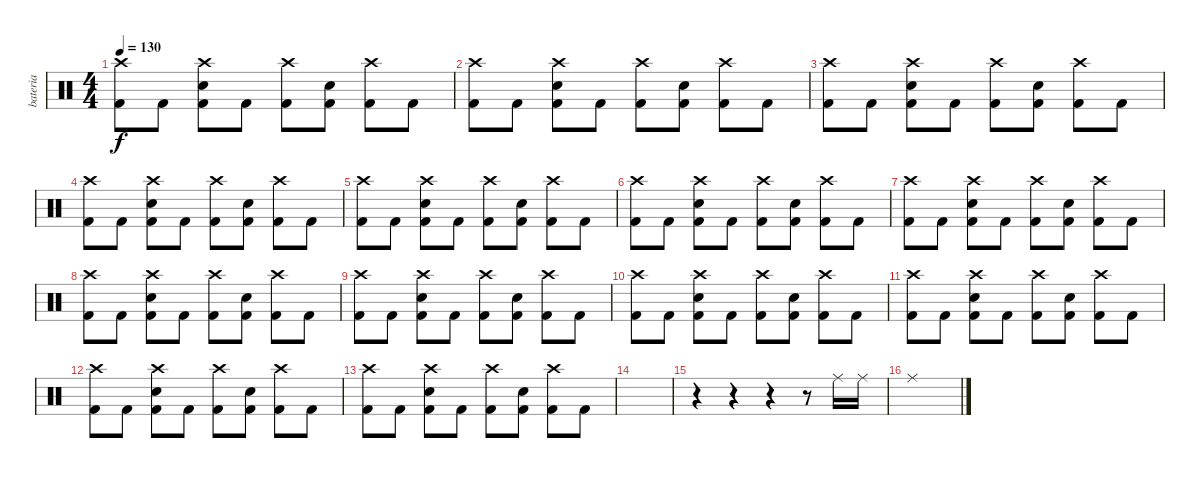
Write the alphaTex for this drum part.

\track ("bateria" "bateria") {instrument percussion}
\staff {score}
\articulation defaults
\ts (4 4)
\tempo 130
\clef neutral
\ks c
("Crash high (hit)" "Kick (hit) 2").8{dy f} "Kick (hit) 2".8 ("Crash high (hit)" "Kick (hit) 2" "Electric Snare (hit)").8 "Kick (hit) 2".8 ("Crash high (hit)" "Kick (hit) 2").8 ("Kick (hit) 2" "Electric Snare (hit)").8 ("Crash high (hit)" "Kick (hit) 2").8 "Kick (hit) 2".8 |
("Crash high (hit)" "Kick (hit) 2").8 "Kick (hit) 2".8 ("Crash high (hit)" "Kick (hit) 2" "Electric Snare (hit)").8 "Kick (hit) 2".8 ("Crash high (hit)" "Kick (hit) 2").8 ("Kick (hit) 2" "Electric Snare (hit)").8 ("Crash high (hit)" "Kick (hit) 2").8 "Kick (hit) 2".8 |
("Crash high (hit)" "Kick (hit) 2").8 "Kick (hit) 2".8 ("Crash high (hit)" "Kick (hit) 2" "Electric Snare (hit)").8 "Kick (hit) 2".8 ("Crash high (hit)" "Kick (hit) 2").8 ("Kick (hit) 2" "Electric Snare (hit)").8 ("Crash high (hit)" "Kick (hit) 2").8 "Kick (hit) 2".8 |
("Crash high (hit)" "Kick (hit) 2").8 "Kick (hit) 2".8 ("Crash high (hit)" "Kick (hit) 2" "Electric Snare (hit)").8 "Kick (hit) 2".8 ("Crash high (hit)" "Kick (hit) 2").8 ("Kick (hit) 2" "Electric Snare (hit)").8 ("Crash high (hit)" "Kick (hit) 2").8 "Kick (hit) 2".8 |
("Crash high (hit)" "Kick (hit) 2").8 "Kick (hit) 2".8 ("Crash high (hit)" "Kick (hit) 2" "Electric Snare (hit)").8 "Kick (hit) 2".8 ("Crash high (hit)" "Kick (hit) 2").8 ("Kick (hit) 2" "Electric Snare (hit)").8 ("Crash high (hit)" "Kick (hit) 2").8 "Kick (hit) 2".8 |
("Crash high (hit)" "Kick (hit) 2").8 "Kick (hit) 2".8 ("Crash high (hit)" "Kick (hit) 2" "Electric Snare (hit)").8 "Kick (hit) 2".8 ("Crash high (hit)" "Kick (hit) 2").8 ("Kick (hit) 2" "Electric Snare (hit)").8 ("Crash high (hit)" "Kick (hit) 2").8 "Kick (hit) 2".8 |
("Crash high (hit)" "Kick (hit) 2").8 "Kick (hit) 2".8 ("Crash high (hit)" "Kick (hit) 2" "Electric Snare (hit)").8 "Kick (hit) 2".8 ("Crash high (hit)" "Kick (hit) 2").8 ("Kick (hit) 2" "Electric Snare (hit)").8 ("Crash high (hit)" "Kick (hit) 2").8 "Kick (hit) 2".8 |
("Crash high (hit)" "Kick (hit) 2").8 "Kick (hit) 2".8 ("Crash high (hit)" "Kick (hit) 2" "Electric Snare (hit)").8 "Kick (hit) 2".8 ("Crash high (hit)" "Kick (hit) 2").8 ("Kick (hit) 2" "Electric Snare (hit)").8 ("Crash high (hit)" "Kick (hit) 2").8 "Kick (hit) 2".8 |
("Crash high (hit)" "Kick (hit) 2").8 "Kick (hit) 2".8 ("Crash high (hit)" "Kick (hit) 2" "Electric Snare (hit)").8 "Kick (hit) 2".8 ("Crash high (hit)" "Kick (hit) 2").8 ("Kick (hit) 2" "Electric Snare (hit)").8 ("Crash high (hit)" "Kick (hit) 2").8 "Kick (hit) 2".8 |
("Crash high (hit)" "Kick (hit) 2").8 "Kick (hit) 2".8 ("Crash high (hit)" "Kick (hit) 2" "Electric Snare (hit)").8 "Kick (hit) 2".8 ("Crash high (hit)" "Kick (hit) 2").8 ("Kick (hit) 2" "Electric Snare (hit)").8 ("Crash high (hit)" "Kick (hit) 2").8 "Kick (hit) 2".8 |
("Crash high (hit)" "Kick (hit) 2").8 "Kick (hit) 2".8 ("Crash high (hit)" "Kick (hit) 2" "Electric Snare (hit)").8 "Kick (hit) 2".8 ("Crash high (hit)" "Kick (hit) 2").8 ("Kick (hit) 2" "Electric Snare (hit)").8 ("Crash high (hit)" "Kick (hit) 2").8 "Kick (hit) 2".8 |
("Crash high (hit)" "Kick (hit) 2").8 "Kick (hit) 2".8 ("Crash high (hit)" "Kick (hit) 2" "Electric Snare (hit)").8 "Kick (hit) 2".8 ("Crash high (hit)" "Kick (hit) 2").8 ("Kick (hit) 2" "Electric Snare (hit)").8 ("Crash high (hit)" "Kick (hit) 2").8 "Kick (hit) 2".8 |
("Crash high (hit)" "Kick (hit) 2").8 "Kick (hit) 2".8 ("Crash high (hit)" "Kick (hit) 2" "Electric Snare (hit)").8 "Kick (hit) 2".8 ("Crash high (hit)" "Kick (hit) 2").8 ("Kick (hit) 2" "Electric Snare (hit)").8 ("Crash high (hit)" "Kick (hit) 2").8 "Kick (hit) 2".8 |
|
r.4 r.4 r.4 r.8 "Ride (middle)".16 "Ride (middle)".16 |
"Ride (middle)".1
